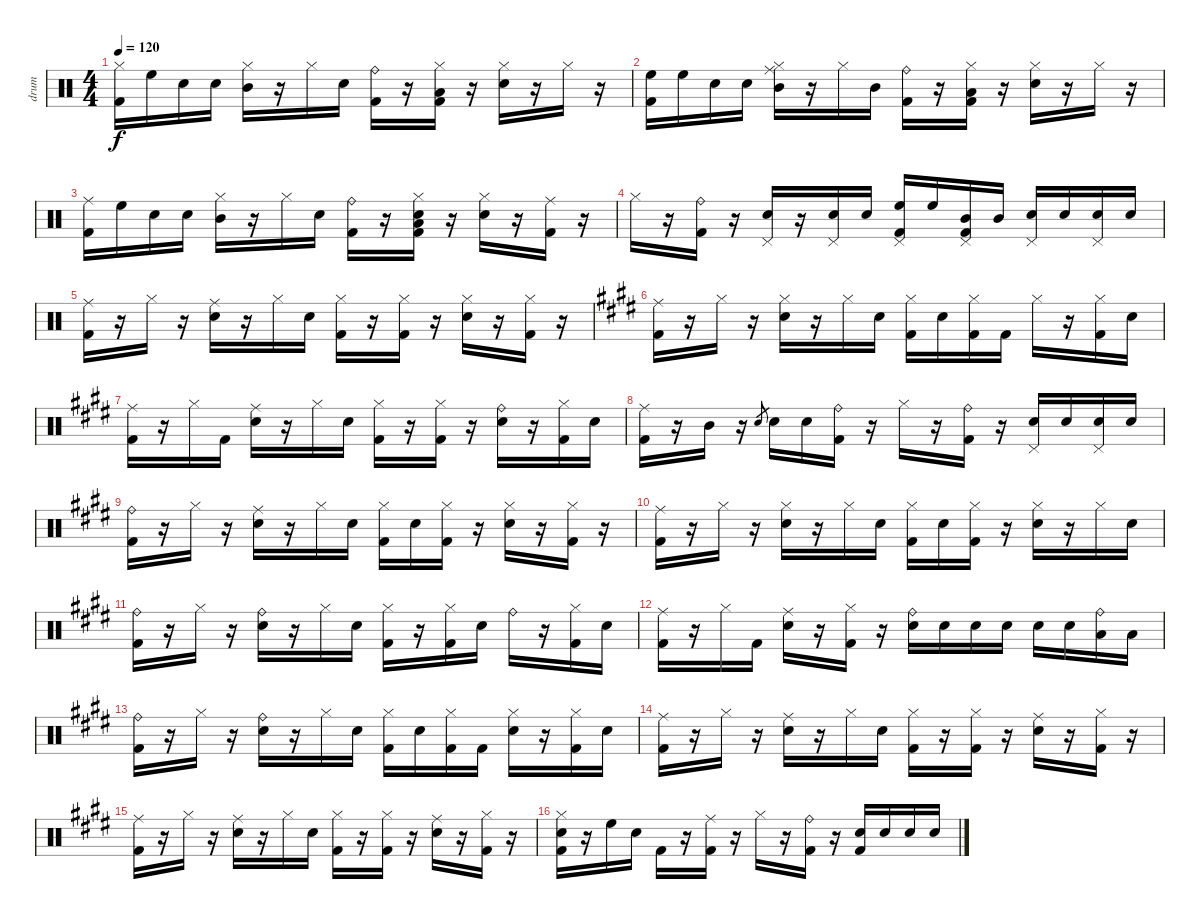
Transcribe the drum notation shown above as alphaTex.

\track ("drum" "drum") {instrument percussion}
\staff {score}
\articulation defaults
\ts (4 4)
\tempo 120
\clef neutral
\ks c
("Kick (hit) 2" "Hi-Hat (closed)").16{dy f} "High Floor Tom (hit)".16 "Snare (hit) 2".16 "Snare (hit) 2".16 ("Mid Tom (hit)" "Hi-Hat (closed)").16 r.16 "Hi-Hat (closed)".16 "Snare (hit) 2".16 ("Kick (hit) 2" "Ride (bell)").16 r.16 ("Low Floor Tom (hit)" "Kick (hit) 2" "Hi-Hat (closed)").16 r.16 ("Snare (hit) 2" "Hi-Hat (closed)").16 r.16 "Hi-Hat (closed)".16 r.16 |
("Kick (hit) 2" "High Floor Tom (hit)").16 "High Floor Tom (hit)".16 "Snare (hit) 2".16 "Snare (hit) 2".16 ("Ride (middle)" "Mid Tom (hit)" "Hi-Hat (closed)").16 r.16 "Hi-Hat (closed)".16 "Mid Tom (hit)".16 ("Kick (hit) 2" "Ride (bell)").16 r.16 ("Low Tom (hit)" "Kick (hit) 2" "Hi-Hat (closed)").16 r.16 ("Snare (hit) 2" "Hi-Hat (closed)").16 r.16 "Hi-Hat (closed)".16 r.16 |
("Kick (hit) 2" "Ride (middle)").16 "High Floor Tom (hit)".16 "Snare (hit) 2".16 "Snare (hit) 2".16 ("Mid Tom (hit)" "Hi-Hat (closed)").16 r.16 "Hi-Hat (closed)".16 "Snare (hit) 2".16 ("Kick (hit) 2" "Ride (bell)").16 r.16 ("Hi-Hat (closed)" "Kick (hit) 2" "Low Floor Tom (hit)" "Snare (hit) 2").16 r.16 ("Snare (hit) 2" "Hi-Hat (closed)").16 r.16 ("Kick (hit) 2" "Ride (middle)").16 r.16 |
"Hi-Hat (closed)".16 r.16 ("Kick (hit) 2" "Ride (bell)").16 r.16 ("Snare (hit) 2" "Pedal Hi-Hat (hit)").16 r.16 ("Snare (hit) 2" "Pedal Hi-Hat (hit)").16 "Snare (hit) 2".16 ("Kick (hit) 2" "High Floor Tom (hit)" "Pedal Hi-Hat (hit)").16 "High Floor Tom (hit)".16 ("Kick (hit) 2" "Mid Tom (hit)" "Pedal Hi-Hat (hit)").16 "Mid Tom (hit)".16 ("Snare (hit) 2" "Pedal Hi-Hat (hit)").16 "Snare (hit) 2".16 ("Snare (hit) 2" "Pedal Hi-Hat (hit)").16 "Snare (hit) 2".16 |
("Kick (hit) 2" "Ride (middle)").16 r.16 "Hi-Hat (closed)".16 r.16 ("Snare (hit) 2" "Ride (middle)").16 r.16 "Hi-Hat (closed)".16 "Snare (hit) 2".16 ("Kick (hit) 2" "Hi-Hat (closed)").16 r.16 ("Kick (hit) 2" "Hi-Hat (closed)").16 r.16 ("Snare (hit) 2" "Hi-Hat (closed)").16 r.16 ("Kick (hit) 2" "Hi-Hat (closed)").16 r.16 |
\ks e
("Kick (hit) 2" "Ride (middle)").16 r.16 "Hi-Hat (closed)".16 r.16 ("Snare (hit) 2" "Hi-Hat (closed)").16 r.16 "Hi-Hat (closed)".16 "Snare (hit) 2".16 ("Kick (hit) 2" "Hi-Hat (closed)").16 "Snare (hit) 2".16 ("Kick (hit) 2" "Hi-Hat (closed)").16 "Kick (hit) 2".16 "Hi-Hat (closed)".16 r.16 ("Kick (hit) 2" "Hi-Hat (closed)").16 "Snare (hit) 2".16 |
("Kick (hit) 2" "Ride (middle)").16 r.16 "Hi-Hat (closed)".16 "Kick (hit) 2".16 ("Snare (hit) 2" "Ride (middle)").16 r.16 "Hi-Hat (closed)".16 "Snare (hit) 2".16 ("Kick (hit) 2" "Hi-Hat (closed)").16 r.16 ("Kick (hit) 2" "Hi-Hat (closed)").16 r.16 ("Snare (hit) 2" "Ride (bell)").16 r.16 ("Kick (hit) 2" "Hi-Hat (closed)").16 "Snare (hit) 2".16 |
("Kick (hit) 2" "Ride (middle)").16 r.16 "Mid Tom (hit)".16 r.16 "Snare (hit) 2".8{gr} "Snare (hit) 2".16 "Snare (hit) 2".16 ("Kick (hit) 2" "Ride (bell)").16 r.16 "Hi-Hat (closed)".16 r.16 ("Kick (hit) 2" "Ride (bell)").16 r.16 ("Snare (hit) 2" "Pedal Hi-Hat (hit)").16 "Snare (hit) 2".16 ("Snare (hit) 2" "Pedal Hi-Hat (hit)").16 "Snare (hit) 2".16 |
("Kick (hit) 2" "Ride (bell)").16 r.16 "Hi-Hat (closed)".16 r.16 ("Snare (hit) 2" "Ride (middle)").16 r.16 "Hi-Hat (closed)".16 "Snare (hit) 2".16 ("Kick (hit) 2" "Hi-Hat (closed)").16 "Snare (hit) 2".16 ("Kick (hit) 2" "Hi-Hat (closed)").16 r.16 ("Snare (hit) 2" "Hi-Hat (closed)").16 r.16 ("Kick (hit) 2" "Hi-Hat (closed)").16 r.16 |
("Kick (hit) 2" "Ride (middle)").16 r.16 "Hi-Hat (closed)".16 r.16 ("Snare (hit) 2" "Hi-Hat (closed)").16 r.16 "Hi-Hat (closed)".16 "Snare (hit) 2".16 ("Kick (hit) 2" "Hi-Hat (closed)").16 "Snare (hit) 2".16 ("Kick (hit) 2" "Hi-Hat (closed)").16 r.16 ("Snare (hit) 2" "Hi-Hat (closed)").16 r.16 "Hi-Hat (closed)".16 "Snare (hit) 2".16 |
("Kick (hit) 2" "Ride (bell)").16 r.16 "Hi-Hat (closed)".16 r.16 ("Snare (hit) 2" "Ride (bell)").16 r.16 "Hi-Hat (closed)".16 "Snare (hit) 2".16 ("Kick (hit) 2" "Hi-Hat (closed)").16 r.16 ("Kick (hit) 2" "Hi-Hat (closed)").16 "Snare (hit) 2".16 "Ride (bell)".16 r.16 ("Kick (hit) 2" "Hi-Hat (closed)").16 "Snare (hit) 2".16 |
("Kick (hit) 2" "Ride (middle)").16 r.16 "Hi-Hat (closed)".16 "Kick (hit) 2".16 ("Snare (hit) 2" "Ride (middle)").16 r.16 ("Kick (hit) 2" "Hi-Hat (closed)").16 r.16 ("Ride (bell)" "Snare (hit) 2").16 "Snare (hit) 2".16 "Snare (hit) 2".16 "Snare (hit) 2".16 "Snare (hit) 2".16 "Snare (hit) 2".16 ("Ride (bell)" "Low Tom (hit)").16 "Low Tom (hit)".16 |
("Kick (hit) 2" "Ride (bell)").16 r.16 "Hi-Hat (closed)".16 r.16 ("Snare (hit) 2" "Ride (bell)").16 r.16 "Hi-Hat (closed)".16 "Snare (hit) 2".16 ("Kick (hit) 2" "Hi-Hat (closed)").16 "Snare (hit) 2".16 ("Kick (hit) 2" "Hi-Hat (closed)").16 "Kick (hit) 2".16 ("Snare (hit) 2" "Hi-Hat (closed)").16 r.16 ("Kick (hit) 2" "Hi-Hat (closed)").16 "Snare (hit) 2".16 |
("Kick (hit) 2" "Ride (middle)").16 r.16 "Hi-Hat (closed)".16 r.16 ("Snare (hit) 2" "Ride (middle)").16 r.16 "Hi-Hat (closed)".16 "Snare (hit) 2".16 ("Kick (hit) 2" "Hi-Hat (closed)").16 r.16 ("Kick (hit) 2" "Hi-Hat (closed)").16 r.16 ("Snare (hit) 2" "Ride (middle)").16 r.16 ("Kick (hit) 2" "Hi-Hat (closed)").16 r.16 |
("Kick (hit) 2" "Ride (middle)").16 r.16 "Hi-Hat (closed)".16 r.16 ("Snare (hit) 2" "Ride (middle)").16 r.16 "Hi-Hat (closed)".16 "Snare (hit) 2".16 ("Kick (hit) 2" "Hi-Hat (closed)").16 r.16 ("Kick (hit) 2" "Hi-Hat (closed)").16 r.16 ("Snare (hit) 2" "Ride (middle)").16 r.16 ("Kick (hit) 2" "Hi-Hat (closed)").16 r.16 |
("Snare (hit) 2" "Kick (hit) 2" "Hi-Hat (closed)").16 r.16 "High Floor Tom (hit)".16 "Snare (hit) 2".16 "Kick (hit) 2".16 r.16 ("Kick (hit) 2" "Ride (middle)").16 r.16 "Hi-Hat (closed)".16 r.16 ("Kick (hit) 2" "Ride (bell)").16 r.16 ("Kick (hit) 2" "Snare (hit) 2").16 "Snare (hit) 2".16 "Snare (hit) 2".16 "Snare (hit) 2".16
